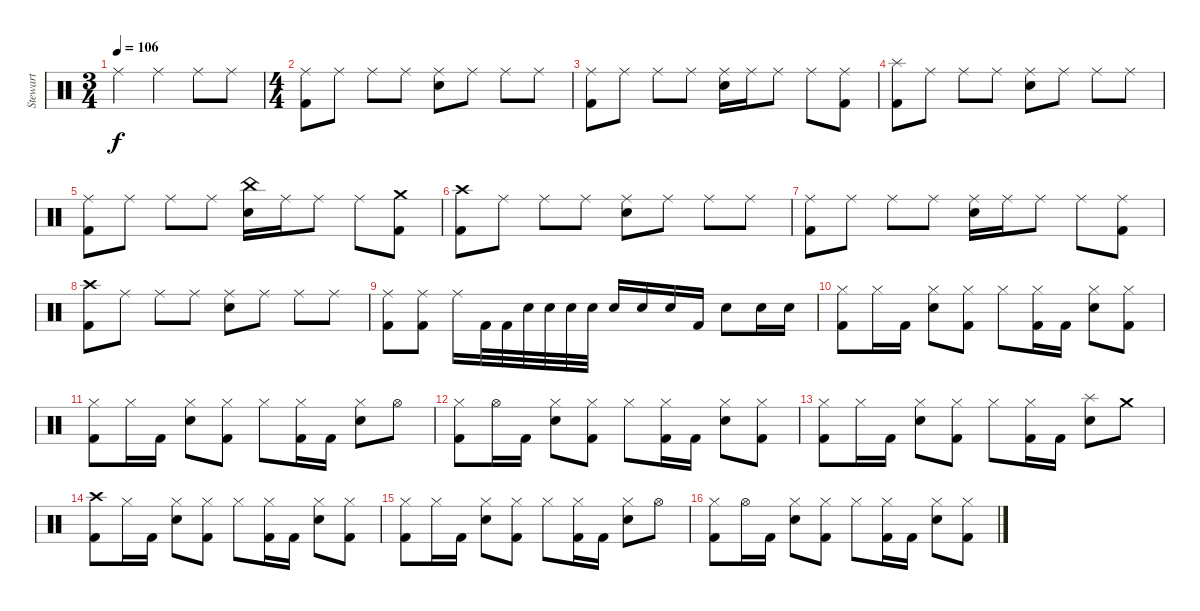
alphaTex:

\track ("Stewart" "Stewart") {instrument percussion}
\staff {score}
\articulation defaults
\ts (3 4)
\tempo 106
\clef neutral
\ks c "Ride (middle)".4{dy f} "Ride (middle)".4 "Ride (middle)".8 "Ride (middle)".8
|
\ts (4 4)
("Ride (middle)" "Kick (hit) 2").8 "Ride (middle)".8 "Ride (middle)".8 "Ride (middle)".8 ("Ride (middle)" "Electric Snare (hit)").8 "Ride (middle)".8 "Ride (middle)".8 "Ride (middle)".8 |
("Ride (middle)" "Kick (hit) 2").8 "Ride (middle)".8 "Ride (middle)".8 "Ride (middle)".8 ("Ride (middle)" "Electric Snare (hit)").16 "Ride (middle)".16 "Ride (middle)".8 "Ride (middle)".8 ("Ride (middle)" "Kick (hit) 2").8 |
("Splash (hit)" "Kick (hit) 2").8 "Ride (middle)".8 "Ride (middle)".8 "Ride (middle)".8 ("Ride (middle)" "Electric Snare (hit)").8 "Ride (middle)".8 "Ride (middle)".8 "Ride (middle)".8 |
("Ride (middle)" "Kick (hit) 2").8 "Ride (middle)".8 "Ride (middle)".8 "Ride (middle)".8 ("China (hit)" "Electric Snare (hit)").16 "Ride (middle)".16 "Ride (middle)".8 "Ride (middle)".8 ("Crash medium (hit)" "Kick (hit) 2").8 |
("Crash high (hit)" "Kick (hit) 2").8 "Ride (middle)".8 "Ride (middle)".8 "Ride (middle)".8 ("Ride (middle)" "Electric Snare (hit)").8 "Ride (middle)".8 "Ride (middle)".8 "Ride (middle)".8 |
("Ride (middle)" "Kick (hit) 2").8 "Ride (middle)".8 "Ride (middle)".8 "Ride (middle)".8 ("Ride (middle)" "Electric Snare (hit)").16 "Ride (middle)".16 "Ride (middle)".8 "Ride (middle)".8 ("Ride (middle)" "Kick (hit) 2").8 |
("Crash high (hit)" "Kick (hit) 2").8 "Ride (middle)".8 "Ride (middle)".8 "Ride (middle)".8 ("Ride (middle)" "Electric Snare (hit)").8 "Ride (middle)".8 "Ride (middle)".8 "Ride (middle)".8 |
("Ride (middle)" "Kick (hit) 2").8 ("Ride (middle)" "Kick (hit) 2").8 "Ride (middle)".16 "Kick (hit) 2".32 "Kick (hit) 2".32 "Electric Snare (hit)".32 "Electric Snare (hit)".32 "Electric Snare (hit)".32 "Electric Snare (hit)".32 "Electric Snare (hit)".16 "Electric Snare (hit)".16 "Electric Snare (hit)".16 "Kick (hit) 2".16 "Electric Snare (hit)".8 "Electric Snare (hit)".16 "Electric Snare (hit)".16 |
("Hi-Hat (closed)" "Kick (hit) 2").8 "Hi-Hat (closed)".16 "Kick (hit) 2".16 ("Hi-Hat (closed)" "Electric Snare (hit)").8 ("Hi-Hat (closed)" "Kick (hit) 2").8 "Hi-Hat (closed)".8 ("Hi-Hat (closed)" "Kick (hit) 2").16 "Kick (hit) 2".16 ("Hi-Hat (closed)" "Electric Snare (hit)").8 ("Hi-Hat (closed)" "Kick (hit) 2").8 |
("Hi-Hat (closed)" "Kick (hit) 2").8 "Hi-Hat (closed)".16 "Kick (hit) 2".16 ("Hi-Hat (closed)" "Electric Snare (hit)").8 ("Hi-Hat (closed)" "Kick (hit) 2").8 "Hi-Hat (closed)".8 ("Hi-Hat (closed)" "Kick (hit) 2").16 "Kick (hit) 2".16 ("Hi-Hat (closed)" "Electric Snare (hit)").8 "Hi-Hat (open)".8 |
("Hi-Hat (closed)" "Kick (hit) 2").8 "Hi-Hat (open)".16 "Kick (hit) 2".16 ("Hi-Hat (closed)" "Electric Snare (hit)").8 ("Hi-Hat (closed)" "Kick (hit) 2").8 "Hi-Hat (closed)".8 ("Hi-Hat (closed)" "Kick (hit) 2").16 "Kick (hit) 2".16 ("Hi-Hat (closed)" "Electric Snare (hit)").8 ("Hi-Hat (closed)" "Kick (hit) 2").8 |
("Hi-Hat (closed)" "Kick (hit) 2").8 "Hi-Hat (closed)".16 "Kick (hit) 2".16 ("Hi-Hat (closed)" "Electric Snare (hit)").8 ("Hi-Hat (closed)" "Kick (hit) 2").8 "Hi-Hat (closed)".8 ("Hi-Hat (closed)" "Kick (hit) 2").16 "Kick (hit) 2".16 ("Splash (hit)" "Electric Snare (hit)").8 "Crash medium (hit)".8 |
("Crash high (hit)" "Kick (hit) 2").8 "Hi-Hat (closed)".16 "Kick (hit) 2".16 ("Hi-Hat (closed)" "Electric Snare (hit)").8 ("Hi-Hat (closed)" "Kick (hit) 2").8 "Hi-Hat (closed)".8 ("Hi-Hat (closed)" "Kick (hit) 2").16 "Kick (hit) 2".16 ("Hi-Hat (closed)" "Electric Snare (hit)").8 ("Hi-Hat (closed)" "Kick (hit) 2").8 |
("Hi-Hat (closed)" "Kick (hit) 2").8 "Hi-Hat (closed)".16 "Kick (hit) 2".16 ("Hi-Hat (closed)" "Electric Snare (hit)").8 ("Hi-Hat (closed)" "Kick (hit) 2").8 "Hi-Hat (closed)".8 ("Hi-Hat (closed)" "Kick (hit) 2").16 "Kick (hit) 2".16 ("Hi-Hat (closed)" "Electric Snare (hit)").8 "Hi-Hat (open)".8 |
("Hi-Hat (closed)" "Kick (hit) 2").8 "Hi-Hat (open)".16 "Kick (hit) 2".16 ("Hi-Hat (closed)" "Electric Snare (hit)").8 ("Hi-Hat (closed)" "Kick (hit) 2").8 "Hi-Hat (closed)".8 ("Hi-Hat (closed)" "Kick (hit) 2").16 "Kick (hit) 2".16 ("Hi-Hat (closed)" "Electric Snare (hit)").8 ("Hi-Hat (closed)" "Kick (hit) 2").8
